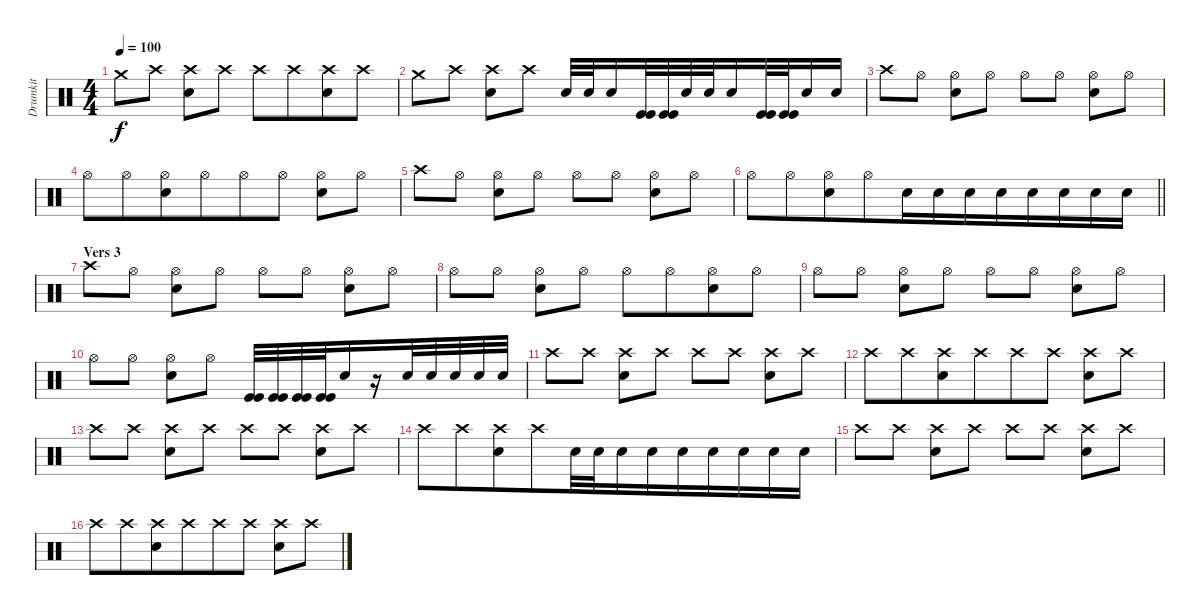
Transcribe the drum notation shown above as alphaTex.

\track ("Drumkit" "Drumkit") {instrument percussion}
\staff {score}
\articulation defaults
\ts (4 4)
\tempo 100
\clef neutral
\ks c "Crash medium (hit)".8{dy f} "Crash high (hit)".8
("Crash high (hit)" "Electric Snare (hit)").8 "Crash high (hit)".8 "Crash high (hit)".8{beam merge} "Crash high (hit)".8{beam merge} ("Crash high (hit)" "Electric Snare (hit)").8{beam merge} "Crash high (hit)".8 |
"Crash medium (hit)".8{beam merge} "Crash high (hit)".8 ("Crash high (hit)" "Electric Snare (hit)").8 "Crash high (hit)".8 "Electric Snare (hit)".32{beam merge} "Electric Snare (hit)".32{beam merge} "Electric Snare (hit)".16{beam merge} ("Kick (hit)" "Kick (hit)").32{beam merge} ("Kick (hit)" "Kick (hit)").32 "Electric Snare (hit)".32{beam merge} "Electric Snare (hit)".32{beam merge} "Electric Snare (hit)".16 ("Kick (hit)" "Kick (hit)").32{beam merge} ("Kick (hit)" "Kick (hit)").32{beam merge} "Electric Snare (hit)".16 "Electric Snare (hit)".16 |
"Crash high (hit)".8 "Hi-Hat (open)".8 ("Hi-Hat (open)" "Electric Snare (hit)").8{beam merge} "Hi-Hat (open)".8 "Hi-Hat (open)".8 "Hi-Hat (open)".8 ("Hi-Hat (open)" "Electric Snare (hit)").8{beam merge} "Hi-Hat (open)".8 |
"Hi-Hat (open)".8{beam merge} "Hi-Hat (open)".8{beam merge} ("Hi-Hat (open)" "Electric Snare (hit)").8{beam merge} "Hi-Hat (open)".8{beam merge} "Hi-Hat (open)".8 "Hi-Hat (open)".8 ("Hi-Hat (open)" "Electric Snare (hit)").8 "Hi-Hat (open)".8 |
"Crash high (hit)".8 "Hi-Hat (open)".8 ("Hi-Hat (open)" "Electric Snare (hit)").8{beam merge} "Hi-Hat (open)".8 "Hi-Hat (open)".8 "Hi-Hat (open)".8 ("Hi-Hat (open)" "Electric Snare (hit)").8{beam merge} "Hi-Hat (open)".8 |
\barLineRight lightlight "Hi-Hat (open)".8{beam merge} "Hi-Hat (open)".8{beam merge}
("Hi-Hat (open)" "Electric Snare (hit)").8{beam merge} "Hi-Hat (open)".8{beam merge} "Electric Snare (hit)".16 "Electric Snare (hit)".16 "Electric Snare (hit)".16 "Electric Snare (hit)".16{beam merge} "Electric Snare (hit)".16{beam merge} "Electric Snare (hit)".16 "Electric Snare (hit)".16{beam merge} "Electric Snare (hit)".16 |
\section ("" "Vers 3")
"Crash high (hit)".8{beam merge} "Hi-Hat (open)".8 ("Hi-Hat (open)" "Electric Snare (hit)").8 "Hi-Hat (open)".8 "Hi-Hat (open)".8{beam merge} "Hi-Hat (open)".8 ("Hi-Hat (open)" "Electric Snare (hit)").8{beam merge} "Hi-Hat (open)".8 |
"Hi-Hat (open)".8{beam merge} "Hi-Hat (open)".8 ("Hi-Hat (open)" "Electric Snare (hit)").8 "Hi-Hat (open)".8 "Hi-Hat (open)".8{beam merge} "Hi-Hat (open)".8{beam merge} ("Hi-Hat (open)" "Electric Snare (hit)").8{beam merge} "Hi-Hat (open)".8 |
"Hi-Hat (open)".8 "Hi-Hat (open)".8 ("Hi-Hat (open)" "Electric Snare (hit)").8 "Hi-Hat (open)".8 "Hi-Hat (open)".8 "Hi-Hat (open)".8 ("Hi-Hat (open)" "Electric Snare (hit)").8{beam merge} "Hi-Hat (open)".8 |
"Hi-Hat (open)".8 "Hi-Hat (open)".8 ("Hi-Hat (open)" "Electric Snare (hit)").8{beam merge} "Hi-Hat (open)".8 ("Kick (hit)" "Kick (hit)").32 ("Kick (hit)" "Kick (hit)").32{beam merge} ("Kick (hit)" "Kick (hit)").32 ("Kick (hit)" "Kick (hit)").32 "Electric Snare (hit)".16{beam merge} r.16 "Electric Snare (hit)".32 "Electric Snare (hit)".32 "Electric Snare (hit)".32 "Electric Snare (hit)".32 "Electric Snare (hit)".32 |
"Crash high (hit)".8 "Crash high (hit)".8 ("Crash high (hit)" "Electric Snare (hit)").8{beam merge} "Crash high (hit)".8 "Crash high (hit)".8 "Crash high (hit)".8 ("Crash high (hit)" "Electric Snare (hit)").8{beam merge} "Crash high (hit)".8 |
"Crash high (hit)".8{beam merge} "Crash high (hit)".8{beam merge} ("Crash high (hit)" "Electric Snare (hit)").8{beam merge} "Crash high (hit)".8{beam merge} "Crash high (hit)".8 "Crash high (hit)".8 ("Crash high (hit)" "Electric Snare (hit)").8 "Crash high (hit)".8 |
"Crash high (hit)".8 "Crash high (hit)".8 ("Crash high (hit)" "Electric Snare (hit)").8{beam merge} "Crash high (hit)".8 "Crash high (hit)".8 "Crash high (hit)".8 ("Crash high (hit)" "Electric Snare (hit)").8{beam merge} "Crash high (hit)".8 |
"Crash high (hit)".8{beam merge} "Crash high (hit)".8{beam merge} ("Crash high (hit)" "Electric Snare (hit)").8{beam merge} "Crash high (hit)".8{beam merge} "Electric Snare (hit)".32 "Electric Snare (hit)".32 "Electric Snare (hit)".16 "Electric Snare (hit)".16{beam merge} "Electric Snare (hit)".16{beam merge} "Electric Snare (hit)".16 "Electric Snare (hit)".16{beam merge} "Electric Snare (hit)".16{beam merge} "Electric Snare (hit)".16 |
"Crash high (hit)".8 "Crash high (hit)".8 ("Crash high (hit)" "Electric Snare (hit)").8{beam merge} "Crash high (hit)".8 "Crash high (hit)".8 "Crash high (hit)".8 ("Crash high (hit)" "Electric Snare (hit)").8{beam merge} "Crash high (hit)".8 |
"Crash high (hit)".8{beam merge} "Crash high (hit)".8{beam merge} ("Crash high (hit)" "Electric Snare (hit)").8{beam merge} "Crash high (hit)".8{beam merge} "Crash high (hit)".8 "Crash high (hit)".8 ("Crash high (hit)" "Electric Snare (hit)").8 "Crash high (hit)".8
